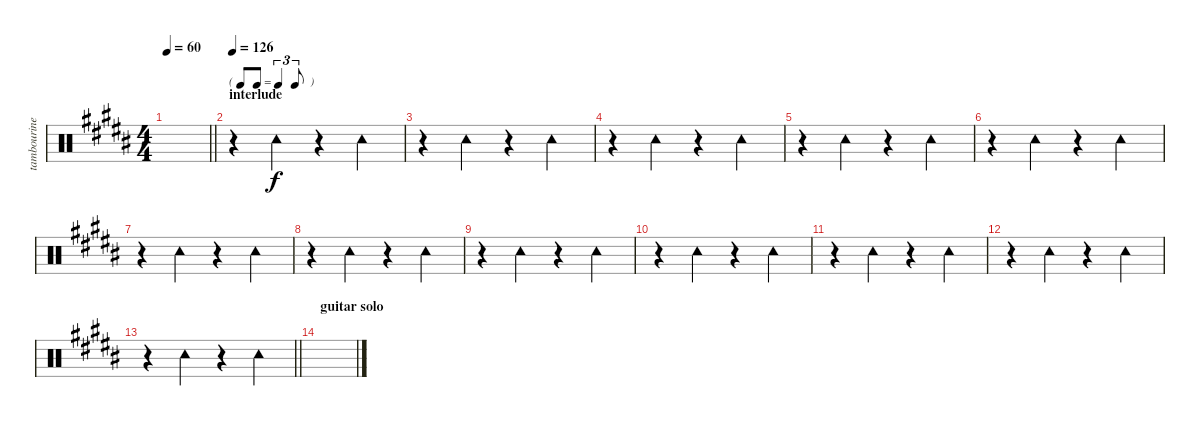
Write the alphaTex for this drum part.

\track ("tambourine" "tambourine") {instrument percussion}
\staff {score}
\articulation defaults
\ts (4 4)
\tempo 60
\clef neutral
\barLineRight lightlight
\ks b
|
\tf triplet8th
\section ("" "interlude")
\tempo 126
r.4 "Tambourine (hit)".4 r.4 "Tambourine (hit)".4 |
r.4 "Tambourine (hit)".4 r.4 "Tambourine (hit)".4 |
r.4 "Tambourine (hit)".4 r.4 "Tambourine (hit)".4 |
r.4 "Tambourine (hit)".4 r.4 "Tambourine (hit)".4 |
r.4 "Tambourine (hit)".4 r.4 "Tambourine (hit)".4 |
r.4 "Tambourine (hit)".4 r.4 "Tambourine (hit)".4 |
r.4 "Tambourine (hit)".4 r.4 "Tambourine (hit)".4 |
r.4 "Tambourine (hit)".4 r.4 "Tambourine (hit)".4 |
r.4 "Tambourine (hit)".4 r.4 "Tambourine (hit)".4 |
r.4 "Tambourine (hit)".4 r.4 "Tambourine (hit)".4 |
r.4 "Tambourine (hit)".4 r.4 "Tambourine (hit)".4 |
\barLineRight lightlight
r.4 "Tambourine (hit)".4 r.4 "Tambourine (hit)".4 |
\section ("" "guitar solo")
